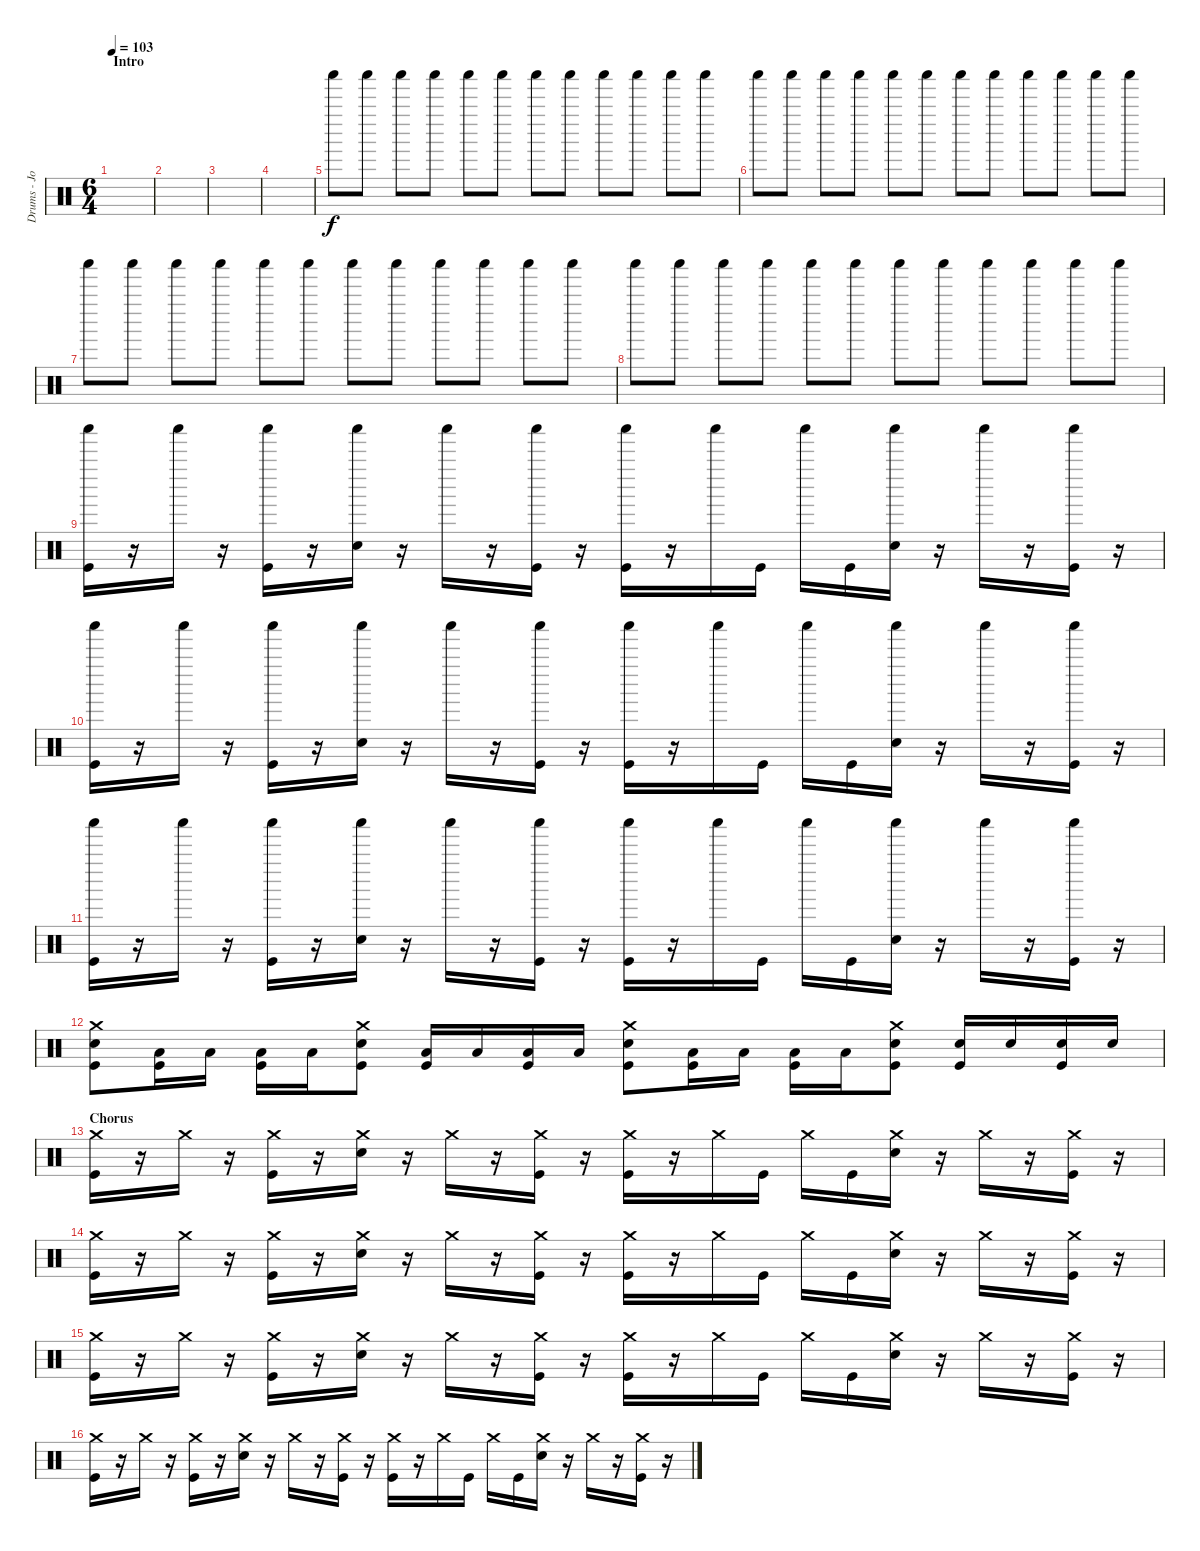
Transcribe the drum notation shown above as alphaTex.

\track ("Drums - Josh Wills" "Drums - Jo") {instrument percussion}
\staff {score}
\articulation defaults
\ts (6 4)
\section ("" "Intro")
\tempo 103
\clef neutral
\ks c
|
|
|
|
"Shaker (hit)".8{volume 8} "Shaker (hit)".8 "Shaker (hit)".8 "Shaker (hit)".8 "Shaker (hit)".8 "Shaker (hit)".8 "Shaker (hit)".8 "Shaker (hit)".8 "Shaker (hit)".8 "Shaker (hit)".8 "Shaker (hit)".8 "Shaker (hit)".8 |
"Shaker (hit)".8 "Shaker (hit)".8 "Shaker (hit)".8 "Shaker (hit)".8 "Shaker (hit)".8 "Shaker (hit)".8 "Shaker (hit)".8 "Shaker (hit)".8 "Shaker (hit)".8 "Shaker (hit)".8 "Shaker (hit)".8 "Shaker (hit)".8 |
"Shaker (hit)".8 "Shaker (hit)".8 "Shaker (hit)".8 "Shaker (hit)".8 "Shaker (hit)".8 "Shaker (hit)".8 "Shaker (hit)".8 "Shaker (hit)".8 "Shaker (hit)".8 "Shaker (hit)".8 "Shaker (hit)".8 "Shaker (hit)".8 |
"Shaker (hit)".8 "Shaker (hit)".8 "Shaker (hit)".8 "Shaker (hit)".8 "Shaker (hit)".8 "Shaker (hit)".8 "Shaker (hit)".8 "Shaker (hit)".8 "Shaker (hit)".8 "Shaker (hit)".8 "Shaker (hit)".8 "Shaker (hit)".8 |
("Shaker (hit)" "Kick (hit)").16 r.16 "Shaker (hit)".16 r.16 ("Shaker (hit)" "Kick (hit)").16 r.16 ("Shaker (hit)" "Electric Snare (hit)").16 r.16 "Shaker (hit)".16 r.16 ("Shaker (hit)" "Kick (hit)").16 r.16 ("Shaker (hit)" "Kick (hit)").16 r.16 "Shaker (hit)".16 "Kick (hit)".16 "Shaker (hit)".16 "Kick (hit)".16 ("Shaker (hit)" "Electric Snare (hit)").16 r.16 "Shaker (hit)".16 r.16 ("Shaker (hit)" "Kick (hit)").16 r.16 |
("Shaker (hit)" "Kick (hit)").16 r.16 "Shaker (hit)".16 r.16 ("Shaker (hit)" "Kick (hit)").16 r.16 ("Shaker (hit)" "Electric Snare (hit)").16 r.16 "Shaker (hit)".16 r.16 ("Shaker (hit)" "Kick (hit)").16 r.16 ("Shaker (hit)" "Kick (hit)").16 r.16 "Shaker (hit)".16 "Kick (hit)".16 "Shaker (hit)".16 "Kick (hit)".16 ("Shaker (hit)" "Electric Snare (hit)").16 r.16 "Shaker (hit)".16 r.16 ("Shaker (hit)" "Kick (hit)").16 r.16 |
("Shaker (hit)" "Kick (hit)").16 r.16 "Shaker (hit)".16 r.16 ("Shaker (hit)" "Kick (hit)").16 r.16 ("Shaker (hit)" "Electric Snare (hit)").16 r.16 "Shaker (hit)".16 r.16 ("Shaker (hit)" "Kick (hit)").16 r.16 ("Shaker (hit)" "Kick (hit)").16 r.16 "Shaker (hit)".16 "Kick (hit)".16 "Shaker (hit)".16 "Kick (hit)".16 ("Shaker (hit)" "Electric Snare (hit)").16 r.16 "Shaker (hit)".16 r.16 ("Shaker (hit)" "Kick (hit)").16 r.16 |
("Crash medium (hit)" "Electric Snare (hit)" "Kick (hit)").8{volume 13} ("Low Tom (hit)" "Kick (hit)").16 "Low Tom (hit)".16 ("Low Tom (hit)" "Kick (hit)").16 "Low Tom (hit)".16 ("Crash medium (hit)" "Electric Snare (hit)" "Kick (hit)").8 ("Low Tom (hit)" "Kick (hit)").16 "Low Tom (hit)".16 ("Low Tom (hit)" "Kick (hit)").16 "Low Tom (hit)".16 ("Crash medium (hit)" "Electric Snare (hit)" "Kick (hit)").8 ("Low Tom (hit)" "Kick (hit)").16 "Low Tom (hit)".16 ("Low Tom (hit)" "Kick (hit)").16 "Low Tom (hit)".16 ("Crash medium (hit)" "Electric Snare (hit)" "Kick (hit)").8 ("Electric Snare (hit)" "Kick (hit)").16 "Electric Snare (hit)".16 ("Electric Snare (hit)" "Kick (hit)").16 "Electric Snare (hit)".16 |
\section ("" "Chorus")
("Crash medium (hit)" "Kick (hit)").16 r.16 "Crash medium (hit)".16 r.16 ("Crash medium (hit)" "Kick (hit)").16 r.16 ("Crash medium (hit)" "Electric Snare (hit)").16 r.16 "Crash medium (hit)".16 r.16 ("Crash medium (hit)" "Kick (hit)").16 r.16 ("Crash medium (hit)" "Kick (hit)").16 r.16 "Crash medium (hit)".16 "Kick (hit)".16 "Crash medium (hit)".16 "Kick (hit)".16 ("Crash medium (hit)" "Electric Snare (hit)").16 r.16 "Crash medium (hit)".16 r.16 ("Crash medium (hit)" "Kick (hit)").16 r.16 |
("Crash medium (hit)" "Kick (hit)").16 r.16 "Crash medium (hit)".16 r.16 ("Crash medium (hit)" "Kick (hit)").16 r.16 ("Crash medium (hit)" "Electric Snare (hit)").16 r.16 "Crash medium (hit)".16 r.16 ("Crash medium (hit)" "Kick (hit)").16 r.16 ("Crash medium (hit)" "Kick (hit)").16 r.16 "Crash medium (hit)".16 "Kick (hit)".16 "Crash medium (hit)".16 "Kick (hit)".16 ("Crash medium (hit)" "Electric Snare (hit)").16 r.16 "Crash medium (hit)".16 r.16 ("Crash medium (hit)" "Kick (hit)").16 r.16 |
("Crash medium (hit)" "Kick (hit)").16 r.16 "Crash medium (hit)".16 r.16 ("Crash medium (hit)" "Kick (hit)").16 r.16 ("Crash medium (hit)" "Electric Snare (hit)").16 r.16 "Crash medium (hit)".16 r.16 ("Crash medium (hit)" "Kick (hit)").16 r.16 ("Crash medium (hit)" "Kick (hit)").16 r.16 "Crash medium (hit)".16 "Kick (hit)".16 "Crash medium (hit)".16 "Kick (hit)".16 ("Crash medium (hit)" "Electric Snare (hit)").16 r.16 "Crash medium (hit)".16 r.16 ("Crash medium (hit)" "Kick (hit)").16 r.16 |
("Crash medium (hit)" "Kick (hit)").16 r.16 "Crash medium (hit)".16 r.16 ("Crash medium (hit)" "Kick (hit)").16 r.16 ("Crash medium (hit)" "Electric Snare (hit)").16 r.16 "Crash medium (hit)".16 r.16 ("Crash medium (hit)" "Kick (hit)").16 r.16 ("Crash medium (hit)" "Kick (hit)").16 r.16 "Crash medium (hit)".16 "Kick (hit)".16 "Crash medium (hit)".16 "Kick (hit)".16 ("Crash medium (hit)" "Electric Snare (hit)").16 r.16 "Crash medium (hit)".16 r.16 ("Crash medium (hit)" "Kick (hit)").16 r.16
